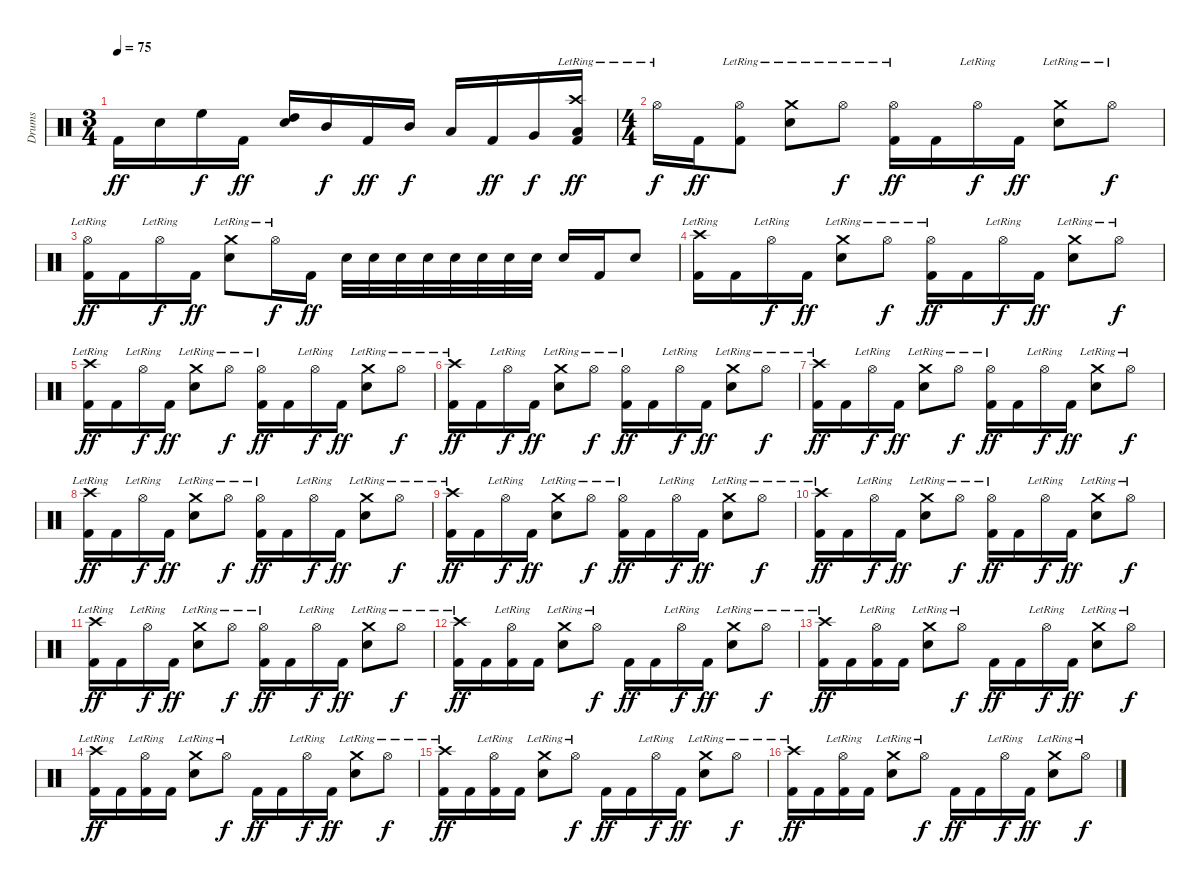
\track ("Drums" "Drums") {instrument percussion}
\staff {score}
\articulation defaults
\ts (3 4)
\tempo 75
\clef neutral
\ks c "Kick (hit) 2".16{dy ff} "Snare (hit) 2".16 "High Floor Tom (hit)".16{dy f} "Kick (hit) 2".16{dy ff}
("Snare (hit) 2" "High Tom (hit)").16 "Mid Tom (hit)".16{dy f} "Kick (hit) 2".16{dy ff} "Mid Tom (hit)".16{dy f} "Low Tom (hit)".16 "Kick (hit) 2".16{dy ff} "Very Low Tom (hit)".16{dy f} ("Crash high (hit)"{lr} "Low Floor Tom (hit)" "Kick (hit) 2").16{dy ff} |
\ts (4 4)
"Hi-Hat (open)"{lr}.16{dy f} "Kick (hit) 2".16{dy ff} ("Hi-Hat (open)"{lr} "Kick (hit) 2").8 ("Crash medium (hit)"{lr} "Snare (hit) 2").8 "Hi-Hat (open)"{lr}.8{dy f} ("Hi-Hat (open)"{lr} "Kick (hit) 2").16{dy ff} "Kick (hit) 2".16 "Hi-Hat (open)"{lr}.16{dy f} "Kick (hit) 2".16{dy ff} ("Crash medium (hit)"{lr} "Snare (hit) 2").8 "Hi-Hat (open)"{lr}.8{dy f} |
("Hi-Hat (open)"{lr} "Kick (hit) 2").16{dy ff} "Kick (hit) 2".16 "Hi-Hat (open)"{lr}.16{dy f} "Kick (hit) 2".16{dy ff} ("Crash medium (hit)"{lr} "Snare (hit) 2").8 "Hi-Hat (open)"{lr}.16{dy f} "Kick (hit) 2".16{dy ff} "Snare (hit) 2".32 "Snare (hit) 2".32 "Snare (hit) 2".32 "Snare (hit) 2".32 "Snare (hit) 2".32 "Snare (hit) 2".32 "Snare (hit) 2".32 "Snare (hit) 2".32 "Snare (hit) 2".16 "Kick (hit) 2".16 "Snare (hit) 2".8 |
("Crash high (hit)"{lr} "Kick (hit) 2").16 "Kick (hit) 2".16 "Hi-Hat (open)"{lr}.16{dy f} "Kick (hit) 2".16{dy ff} ("Crash medium (hit)"{lr} "Snare (hit) 2").8 "Hi-Hat (open)"{lr}.8{dy f} ("Hi-Hat (open)"{lr} "Kick (hit) 2").16{dy ff} "Kick (hit) 2".16 "Hi-Hat (open)"{lr}.16{dy f} "Kick (hit) 2".16{dy ff} ("Crash medium (hit)"{lr} "Snare (hit) 2").8 "Hi-Hat (open)"{lr}.8{dy f} |
("Crash high (hit)"{lr} "Kick (hit) 2").16{dy ff} "Kick (hit) 2".16 "Hi-Hat (open)"{lr}.16{dy f} "Kick (hit) 2".16{dy ff} ("Crash medium (hit)"{lr} "Snare (hit) 2").8 "Hi-Hat (open)"{lr}.8{dy f} ("Hi-Hat (open)"{lr} "Kick (hit) 2").16{dy ff} "Kick (hit) 2".16 "Hi-Hat (open)"{lr}.16{dy f} "Kick (hit) 2".16{dy ff} ("Crash medium (hit)"{lr} "Snare (hit) 2").8 "Hi-Hat (open)"{lr}.8{dy f} |
("Crash high (hit)"{lr} "Kick (hit) 2").16{dy ff} "Kick (hit) 2".16 "Hi-Hat (open)"{lr}.16{dy f} "Kick (hit) 2".16{dy ff} ("Crash medium (hit)"{lr} "Snare (hit) 2").8 "Hi-Hat (open)"{lr}.8{dy f} ("Hi-Hat (open)"{lr} "Kick (hit) 2").16{dy ff} "Kick (hit) 2".16 "Hi-Hat (open)"{lr}.16{dy f} "Kick (hit) 2".16{dy ff} ("Crash medium (hit)"{lr} "Snare (hit) 2").8 "Hi-Hat (open)"{lr}.8{dy f} |
("Crash high (hit)"{lr} "Kick (hit) 2").16{dy ff} "Kick (hit) 2".16 "Hi-Hat (open)"{lr}.16{dy f} "Kick (hit) 2".16{dy ff} ("Crash medium (hit)"{lr} "Snare (hit) 2").8 "Hi-Hat (open)"{lr}.8{dy f} ("Hi-Hat (open)"{lr} "Kick (hit) 2").16{dy ff} "Kick (hit) 2".16 "Hi-Hat (open)"{lr}.16{dy f} "Kick (hit) 2".16{dy ff} ("Crash medium (hit)"{lr} "Snare (hit) 2").8 "Hi-Hat (open)"{lr}.8{dy f} |
("Crash high (hit)"{lr} "Kick (hit) 2").16{dy ff} "Kick (hit) 2".16 "Hi-Hat (open)"{lr}.16{dy f} "Kick (hit) 2".16{dy ff} ("Crash medium (hit)"{lr} "Snare (hit) 2").8 "Hi-Hat (open)"{lr}.8{dy f} ("Hi-Hat (open)"{lr} "Kick (hit) 2").16{dy ff} "Kick (hit) 2".16 "Hi-Hat (open)"{lr}.16{dy f} "Kick (hit) 2".16{dy ff} ("Crash medium (hit)"{lr} "Snare (hit) 2").8 "Hi-Hat (open)"{lr}.8{dy f} |
("Crash high (hit)"{lr} "Kick (hit) 2").16{dy ff} "Kick (hit) 2".16 "Hi-Hat (open)"{lr}.16{dy f} "Kick (hit) 2".16{dy ff} ("Crash medium (hit)"{lr} "Snare (hit) 2").8 "Hi-Hat (open)"{lr}.8{dy f} ("Hi-Hat (open)"{lr} "Kick (hit) 2").16{dy ff} "Kick (hit) 2".16 "Hi-Hat (open)"{lr}.16{dy f} "Kick (hit) 2".16{dy ff} ("Crash medium (hit)"{lr} "Snare (hit) 2").8 "Hi-Hat (open)"{lr}.8{dy f} |
("Crash high (hit)"{lr} "Kick (hit) 2").16{dy ff} "Kick (hit) 2".16 "Hi-Hat (open)"{lr}.16{dy f} "Kick (hit) 2".16{dy ff} ("Crash medium (hit)"{lr} "Snare (hit) 2").8 "Hi-Hat (open)"{lr}.8{dy f} ("Hi-Hat (open)"{lr} "Kick (hit) 2").16{dy ff} "Kick (hit) 2".16 "Hi-Hat (open)"{lr}.16{dy f} "Kick (hit) 2".16{dy ff} ("Crash medium (hit)"{lr} "Snare (hit) 2").8 "Hi-Hat (open)"{lr}.8{dy f} |
("Crash high (hit)"{lr} "Kick (hit) 2").16{dy ff} "Kick (hit) 2".16 "Hi-Hat (open)"{lr}.16{dy f} "Kick (hit) 2".16{dy ff} ("Crash medium (hit)"{lr} "Snare (hit) 2").8 "Hi-Hat (open)"{lr}.8{dy f} ("Hi-Hat (open)"{lr} "Kick (hit) 2").16{dy ff} "Kick (hit) 2".16 "Hi-Hat (open)"{lr}.16{dy f} "Kick (hit) 2".16{dy ff} ("Crash medium (hit)"{lr} "Snare (hit) 2").8 "Hi-Hat (open)"{lr}.8{dy f} |
("Crash high (hit)"{lr} "Kick (hit) 2").16{dy ff} "Kick (hit) 2".16 ("Hi-Hat (open)"{lr} "Kick (hit) 2").16 "Kick (hit) 2".16 ("Crash medium (hit)"{lr} "Snare (hit) 2").8 "Hi-Hat (open)"{lr}.8{dy f} "Kick (hit) 2".16{dy ff} "Kick (hit) 2".16 "Hi-Hat (open)"{lr}.16{dy f} "Kick (hit) 2".16{dy ff} ("Crash medium (hit)"{lr} "Snare (hit) 2").8 "Hi-Hat (open)"{lr}.8{dy f} |
("Crash high (hit)"{lr} "Kick (hit) 2").16{dy ff} "Kick (hit) 2".16 ("Hi-Hat (open)"{lr} "Kick (hit) 2").16 "Kick (hit) 2".16 ("Crash medium (hit)"{lr} "Snare (hit) 2").8 "Hi-Hat (open)"{lr}.8{dy f} "Kick (hit) 2".16{dy ff} "Kick (hit) 2".16 "Hi-Hat (open)"{lr}.16{dy f} "Kick (hit) 2".16{dy ff} ("Crash medium (hit)"{lr} "Snare (hit) 2").8 "Hi-Hat (open)"{lr}.8{dy f} |
("Crash high (hit)"{lr} "Kick (hit) 2").16{dy ff} "Kick (hit) 2".16 ("Hi-Hat (open)"{lr} "Kick (hit) 2").16 "Kick (hit) 2".16 ("Crash medium (hit)"{lr} "Snare (hit) 2").8 "Hi-Hat (open)"{lr}.8{dy f} "Kick (hit) 2".16{dy ff} "Kick (hit) 2".16 "Hi-Hat (open)"{lr}.16{dy f} "Kick (hit) 2".16{dy ff} ("Crash medium (hit)"{lr} "Snare (hit) 2").8 "Hi-Hat (open)"{lr}.8{dy f} |
("Crash high (hit)"{lr} "Kick (hit) 2").16{dy ff} "Kick (hit) 2".16 ("Hi-Hat (open)"{lr} "Kick (hit) 2").16 "Kick (hit) 2".16 ("Crash medium (hit)"{lr} "Snare (hit) 2").8 "Hi-Hat (open)"{lr}.8{dy f} "Kick (hit) 2".16{dy ff} "Kick (hit) 2".16 "Hi-Hat (open)"{lr}.16{dy f} "Kick (hit) 2".16{dy ff} ("Crash medium (hit)"{lr} "Snare (hit) 2").8 "Hi-Hat (open)"{lr}.8{dy f} |
("Crash high (hit)"{lr} "Kick (hit) 2").16{dy ff} "Kick (hit) 2".16 ("Hi-Hat (open)"{lr} "Kick (hit) 2").16 "Kick (hit) 2".16 ("Crash medium (hit)"{lr} "Snare (hit) 2").8 "Hi-Hat (open)"{lr}.8{dy f} "Kick (hit) 2".16{dy ff} "Kick (hit) 2".16 "Hi-Hat (open)"{lr}.16{dy f} "Kick (hit) 2".16{dy ff} ("Crash medium (hit)"{lr} "Snare (hit) 2").8 "Hi-Hat (open)"{lr}.8{dy f}
